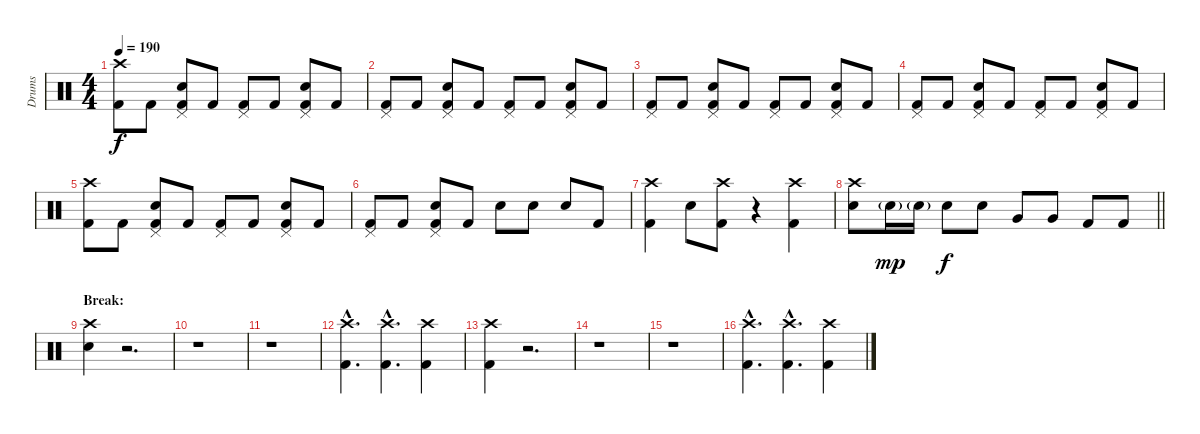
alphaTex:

\track ("Drums" "Drums") {instrument percussion}
\staff {score}
\articulation defaults
\ts (4 4)
\tempo 190
\clef neutral
\ks c
("Crash high (hit)" "Kick (hit) 2").8{dy f} "Kick (hit) 2".8 ("Pedal Hi-Hat (hit)" "Electric Snare (hit)" "Kick (hit) 2").8 "Kick (hit) 2".8 ("Pedal Hi-Hat (hit)" "Kick (hit) 2").8 "Kick (hit) 2".8 ("Pedal Hi-Hat (hit)" "Electric Snare (hit)" "Kick (hit) 2").8 "Kick (hit) 2".8 |
("Pedal Hi-Hat (hit)" "Kick (hit) 2").8 "Kick (hit) 2".8 ("Pedal Hi-Hat (hit)" "Electric Snare (hit)" "Kick (hit) 2").8 "Kick (hit) 2".8 ("Pedal Hi-Hat (hit)" "Kick (hit) 2").8 "Kick (hit) 2".8 ("Pedal Hi-Hat (hit)" "Electric Snare (hit)" "Kick (hit) 2").8 "Kick (hit) 2".8 |
("Pedal Hi-Hat (hit)" "Kick (hit) 2").8 "Kick (hit) 2".8 ("Pedal Hi-Hat (hit)" "Electric Snare (hit)" "Kick (hit) 2").8 "Kick (hit) 2".8 ("Pedal Hi-Hat (hit)" "Kick (hit) 2").8 "Kick (hit) 2".8 ("Pedal Hi-Hat (hit)" "Electric Snare (hit)" "Kick (hit) 2").8 "Kick (hit) 2".8 |
("Pedal Hi-Hat (hit)" "Kick (hit) 2").8 "Kick (hit) 2".8 ("Pedal Hi-Hat (hit)" "Electric Snare (hit)" "Kick (hit) 2").8 "Kick (hit) 2".8 ("Pedal Hi-Hat (hit)" "Kick (hit) 2").8 "Kick (hit) 2".8 ("Pedal Hi-Hat (hit)" "Electric Snare (hit)" "Kick (hit) 2").8 "Kick (hit) 2".8 |
("Crash high (hit)" "Kick (hit) 2").8 "Kick (hit) 2".8 ("Pedal Hi-Hat (hit)" "Electric Snare (hit)" "Kick (hit) 2").8 "Kick (hit) 2".8 ("Pedal Hi-Hat (hit)" "Kick (hit) 2").8 "Kick (hit) 2".8 ("Pedal Hi-Hat (hit)" "Electric Snare (hit)" "Kick (hit) 2").8 "Kick (hit) 2".8 |
("Pedal Hi-Hat (hit)" "Kick (hit) 2").8 "Kick (hit) 2".8 ("Pedal Hi-Hat (hit)" "Electric Snare (hit)" "Kick (hit) 2").8 "Kick (hit) 2".8 "Electric Snare (hit)".8 "Electric Snare (hit)".8 "Electric Snare (hit)".8 "Kick (hit) 2".8 |
("Crash high (hit)" "Kick (hit) 2").4 "Electric Snare (hit)".8 ("Crash high (hit)" "Kick (hit) 2").8 r.4 ("Crash high (hit)" "Kick (hit) 2").4 |
\barLineRight lightlight
("Crash high (hit)" "Electric Snare (hit)").8 "Electric Snare (hit)"{g}.16{dy mp} "Electric Snare (hit)"{g}.16 "Electric Snare (hit)".8{dy f} "Electric Snare (hit)".8 "Very Low Tom (hit)".8 "Very Low Tom (hit)".8 "Kick (hit) 2".8 "Kick (hit) 2".8 |
\section ("" "Break:")
("Crash high (hit)" "Electric Snare (hit)").4 r.2{d} |
r.1 |
r.1 |
("Crash high (hit)"{hac} "Kick (hit) 2"{hac}).4{d} ("Crash high (hit)"{hac} "Kick (hit) 2"{hac}).4{d} ("Crash high (hit)" "Kick (hit) 2").4 |
("Crash high (hit)" "Kick (hit) 2").4 r.2{d} |
r.1 |
r.1 |
("Crash high (hit)"{hac} "Kick (hit) 2"{hac}).4{d} ("Crash high (hit)"{hac} "Kick (hit) 2"{hac}).4{d} ("Crash high (hit)" "Kick (hit) 2").4
